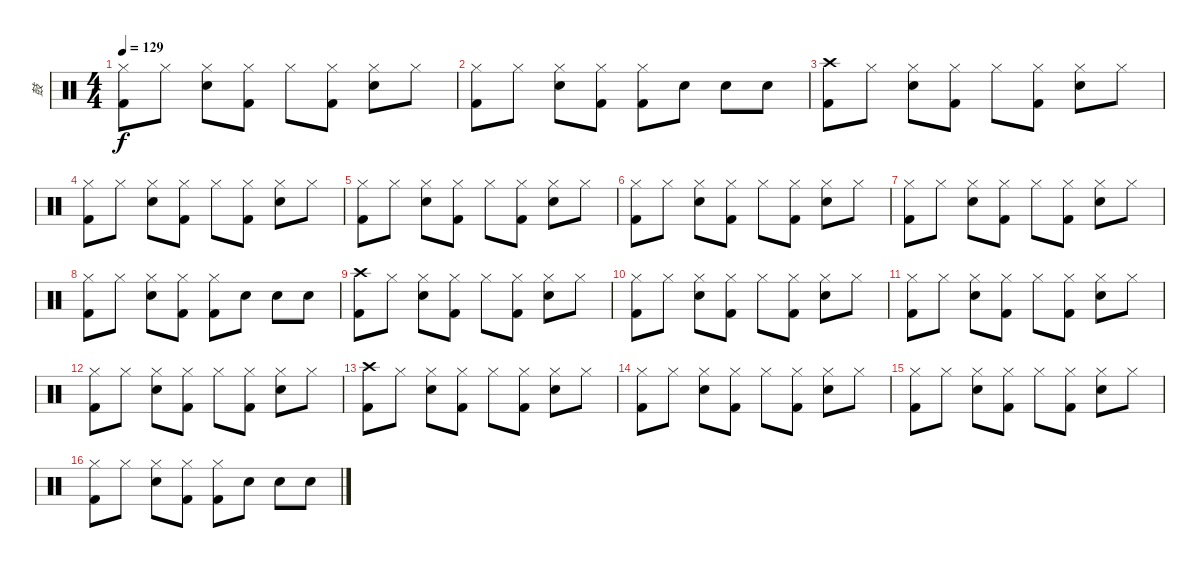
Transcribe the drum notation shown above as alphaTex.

\track ("鼓" "鼓") {instrument percussion}
\staff {score}
\articulation defaults
\ts (4 4)
\tempo 129
\clef neutral
\ks c
("Hi-Hat (closed)" "Kick (hit) 2").8{dy f} "Hi-Hat (closed)".8 ("Hi-Hat (closed)" "Snare (hit) 2").8 ("Hi-Hat (closed)" "Kick (hit) 2").8 "Hi-Hat (closed)".8 ("Hi-Hat (closed)" "Kick (hit) 2").8 ("Hi-Hat (closed)" "Snare (hit) 2").8 "Hi-Hat (closed)".8 |
("Hi-Hat (closed)" "Kick (hit) 2").8 "Hi-Hat (closed)".8 ("Hi-Hat (closed)" "Snare (hit) 2").8 ("Hi-Hat (closed)" "Kick (hit) 2").8 ("Hi-Hat (closed)" "Kick (hit) 2").8 "Snare (hit) 2".8 "Snare (hit) 2".8 "Snare (hit) 2".8 |
("Crash high (hit)" "Kick (hit) 2").8 "Hi-Hat (closed)".8 ("Hi-Hat (closed)" "Snare (hit) 2").8 ("Hi-Hat (closed)" "Kick (hit) 2").8 "Hi-Hat (closed)".8 ("Hi-Hat (closed)" "Kick (hit) 2").8 ("Hi-Hat (closed)" "Snare (hit) 2").8 "Hi-Hat (closed)".8 |
("Hi-Hat (closed)" "Kick (hit) 2").8 "Hi-Hat (closed)".8 ("Hi-Hat (closed)" "Snare (hit) 2").8 ("Hi-Hat (closed)" "Kick (hit) 2").8 "Hi-Hat (closed)".8 ("Hi-Hat (closed)" "Kick (hit) 2").8 ("Hi-Hat (closed)" "Snare (hit) 2").8 "Hi-Hat (closed)".8 |
("Hi-Hat (closed)" "Kick (hit) 2").8 "Hi-Hat (closed)".8 ("Hi-Hat (closed)" "Snare (hit) 2").8 ("Hi-Hat (closed)" "Kick (hit) 2").8 "Hi-Hat (closed)".8 ("Hi-Hat (closed)" "Kick (hit) 2").8 ("Hi-Hat (closed)" "Snare (hit) 2").8 "Hi-Hat (closed)".8 |
("Hi-Hat (closed)" "Kick (hit) 2").8 "Hi-Hat (closed)".8 ("Hi-Hat (closed)" "Snare (hit) 2").8 ("Hi-Hat (closed)" "Kick (hit) 2").8 "Hi-Hat (closed)".8 ("Hi-Hat (closed)" "Kick (hit) 2").8 ("Hi-Hat (closed)" "Snare (hit) 2").8 "Hi-Hat (closed)".8 |
("Hi-Hat (closed)" "Kick (hit) 2").8 "Hi-Hat (closed)".8 ("Hi-Hat (closed)" "Snare (hit) 2").8 ("Hi-Hat (closed)" "Kick (hit) 2").8 "Hi-Hat (closed)".8 ("Hi-Hat (closed)" "Kick (hit) 2").8 ("Hi-Hat (closed)" "Snare (hit) 2").8 "Hi-Hat (closed)".8 |
("Hi-Hat (closed)" "Kick (hit) 2").8 "Hi-Hat (closed)".8 ("Hi-Hat (closed)" "Snare (hit) 2").8 ("Hi-Hat (closed)" "Kick (hit) 2").8 ("Hi-Hat (closed)" "Kick (hit) 2").8 "Snare (hit) 2".8 "Snare (hit) 2".8 "Snare (hit) 2".8 |
("Crash high (hit)" "Kick (hit) 2").8 "Hi-Hat (closed)".8 ("Hi-Hat (closed)" "Snare (hit) 2").8 ("Hi-Hat (closed)" "Kick (hit) 2").8 "Hi-Hat (closed)".8 ("Hi-Hat (closed)" "Kick (hit) 2").8 ("Hi-Hat (closed)" "Snare (hit) 2").8 "Hi-Hat (closed)".8 |
("Hi-Hat (closed)" "Kick (hit) 2").8 "Hi-Hat (closed)".8 ("Hi-Hat (closed)" "Snare (hit) 2").8 ("Hi-Hat (closed)" "Kick (hit) 2").8 "Hi-Hat (closed)".8 ("Hi-Hat (closed)" "Kick (hit) 2").8 ("Hi-Hat (closed)" "Snare (hit) 2").8 "Hi-Hat (closed)".8 |
("Hi-Hat (closed)" "Kick (hit) 2").8 "Hi-Hat (closed)".8 ("Hi-Hat (closed)" "Snare (hit) 2").8 ("Hi-Hat (closed)" "Kick (hit) 2").8 "Hi-Hat (closed)".8 ("Hi-Hat (closed)" "Kick (hit) 2").8 ("Hi-Hat (closed)" "Snare (hit) 2").8 "Hi-Hat (closed)".8 |
("Hi-Hat (closed)" "Kick (hit) 2").8 "Hi-Hat (closed)".8 ("Hi-Hat (closed)" "Snare (hit) 2").8 ("Hi-Hat (closed)" "Kick (hit) 2").8 "Hi-Hat (closed)".8 ("Hi-Hat (closed)" "Kick (hit) 2").8 ("Hi-Hat (closed)" "Snare (hit) 2").8 "Hi-Hat (closed)".8 |
("Crash high (hit)" "Kick (hit) 2").8 "Hi-Hat (closed)".8 ("Hi-Hat (closed)" "Snare (hit) 2").8 ("Hi-Hat (closed)" "Kick (hit) 2").8 "Hi-Hat (closed)".8 ("Hi-Hat (closed)" "Kick (hit) 2").8 ("Hi-Hat (closed)" "Snare (hit) 2").8 "Hi-Hat (closed)".8 |
("Hi-Hat (closed)" "Kick (hit) 2").8 "Hi-Hat (closed)".8 ("Hi-Hat (closed)" "Snare (hit) 2").8 ("Hi-Hat (closed)" "Kick (hit) 2").8 "Hi-Hat (closed)".8 ("Hi-Hat (closed)" "Kick (hit) 2").8 ("Hi-Hat (closed)" "Snare (hit) 2").8 "Hi-Hat (closed)".8 |
("Hi-Hat (closed)" "Kick (hit) 2").8 "Hi-Hat (closed)".8 ("Hi-Hat (closed)" "Snare (hit) 2").8 ("Hi-Hat (closed)" "Kick (hit) 2").8 "Hi-Hat (closed)".8 ("Hi-Hat (closed)" "Kick (hit) 2").8 ("Hi-Hat (closed)" "Snare (hit) 2").8 "Hi-Hat (closed)".8 |
("Hi-Hat (closed)" "Kick (hit) 2").8 "Hi-Hat (closed)".8 ("Hi-Hat (closed)" "Snare (hit) 2").8 ("Hi-Hat (closed)" "Kick (hit) 2").8 ("Hi-Hat (closed)" "Kick (hit) 2").8 "Snare (hit) 2".8 "Snare (hit) 2".8 "Snare (hit) 2".8
